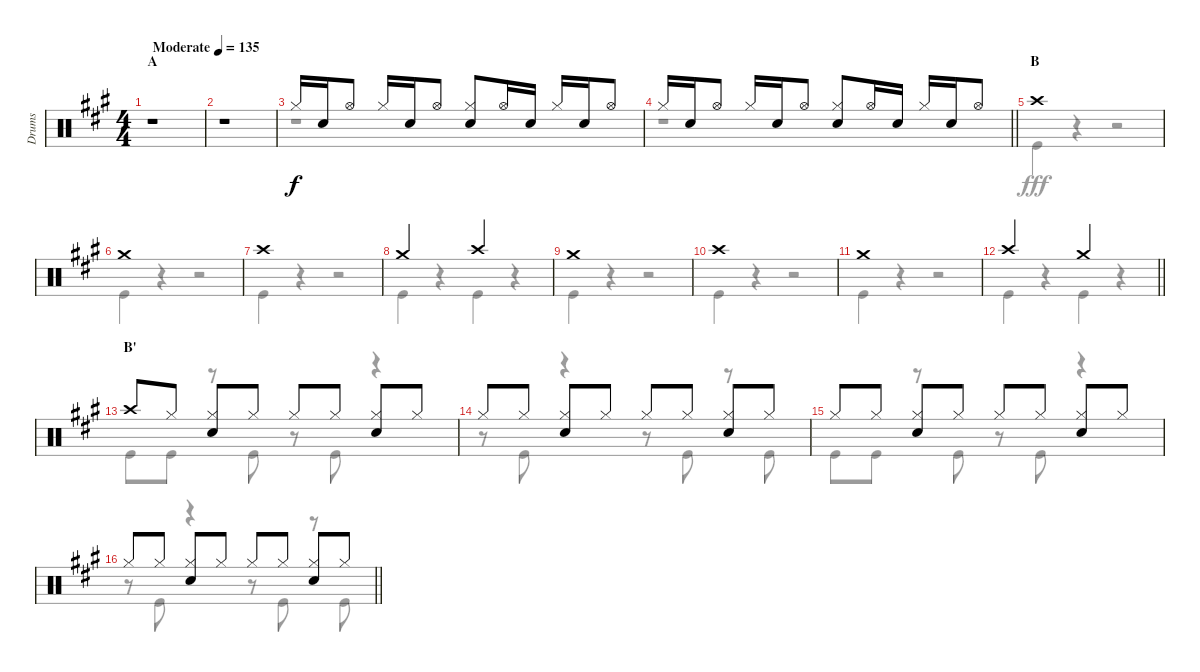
\track ("Drums" "Drums") {instrument percussion}
\staff {score}
\articulation defaults
\voice
\ts (4 4)
\section ("" "A")
\tempo (135 "Moderate")
\clef neutral
\ks a
r.1{dy f} |
r.1 |
"Hi-Hat (closed)".16 "Snare (hit) 2".16 "Hi-Hat (open)".8 "Hi-Hat (closed)".16 "Snare (hit) 2".16 "Hi-Hat (open)".8 ("Hi-Hat (closed)" "Snare (hit) 2").8 "Hi-Hat (open)".16 "Snare (hit) 2".16 "Hi-Hat (closed)".16 "Snare (hit) 2".16 "Hi-Hat (open)".8 |
\barLineRight lightlight "Hi-Hat (closed)".16 "Snare (hit) 2".16 "Hi-Hat (open)".8 "Hi-Hat (closed)".16 "Snare (hit) 2".16 "Hi-Hat (open)".8
("Hi-Hat (closed)" "Snare (hit) 2").8 "Hi-Hat (open)".16 "Snare (hit) 2".16 "Hi-Hat (closed)".16 "Snare (hit) 2".16 "Hi-Hat (open)".8 |
\section ("" "B")
"Crash high (hit)".1 |
"Crash medium (hit)".1 |
"Crash high (hit)".1 |
"Crash medium (hit)".2 "Crash high (hit)".2 |
"Crash medium (hit)".1 |
"Crash high (hit)".1 |
"Crash medium (hit)".1 |
\barLineRight lightlight "Crash high (hit)".2 "Crash medium (hit)".2
|
\section ("" "B'")
"Crash high (hit)".8 "Hi-Hat (closed)".8 ("Hi-Hat (closed)" "Snare (hit) 2").8 "Hi-Hat (closed)".8 "Hi-Hat (closed)".8 "Hi-Hat (closed)".8 ("Hi-Hat (closed)" "Snare (hit) 2").8 "Hi-Hat (closed)".8 |
"Hi-Hat (closed)".8 "Hi-Hat (closed)".8 ("Hi-Hat (closed)" "Snare (hit) 2").8 "Hi-Hat (closed)".8 "Hi-Hat (closed)".8 "Hi-Hat (closed)".8 ("Hi-Hat (closed)" "Snare (hit) 2").8 "Hi-Hat (closed)".8 |
"Hi-Hat (closed)".8 "Hi-Hat (closed)".8 ("Hi-Hat (closed)" "Snare (hit) 2").8 "Hi-Hat (closed)".8 "Hi-Hat (closed)".8 "Hi-Hat (closed)".8 ("Hi-Hat (closed)" "Snare (hit) 2").8 "Hi-Hat (closed)".8 |
\barLineRight lightlight "Hi-Hat (closed)".8 "Hi-Hat (closed)".8
("Hi-Hat (closed)" "Snare (hit) 2").8 "Hi-Hat (closed)".8 "Hi-Hat (closed)".8 "Hi-Hat (closed)".8 ("Hi-Hat (closed)" "Snare (hit) 2").8 "Hi-Hat (closed)".8
\voice
\clef neutral
\ottava regular
\simile none
\ks a
r.1{dy fff} |
r.1 |
r.1 |
\barLineRight lightlight
r.1 |
"Kick (hit)".4 r.4 r.2 |
"Kick (hit)".4 r.4 r.2 |
"Kick (hit)".4 r.4 r.2 |
"Kick (hit)".4 r.4 "Kick (hit)".4 r.4 |
"Kick (hit)".4 r.4 r.2 |
"Kick (hit)".4 r.4 r.2 |
"Kick (hit)".4 r.4 r.2 |
\barLineRight lightlight "Kick (hit)".4
r.4 "Kick (hit)".4 r.4 |
"Kick (hit)".8 "Kick (hit)".8 r.8 "Kick (hit)".8 r.8 "Kick (hit)".8 r.4 |
r.8 "Kick (hit)".8 r.4 r.8 "Kick (hit)".8 r.8 "Kick (hit)".8 |
"Kick (hit)".8 "Kick (hit)".8 r.8 "Kick (hit)".8 r.8 "Kick (hit)".8 r.4 |
\barLineRight lightlight
r.8 "Kick (hit)".8 r.4 r.8 "Kick (hit)".8 r.8 "Kick (hit)".8
